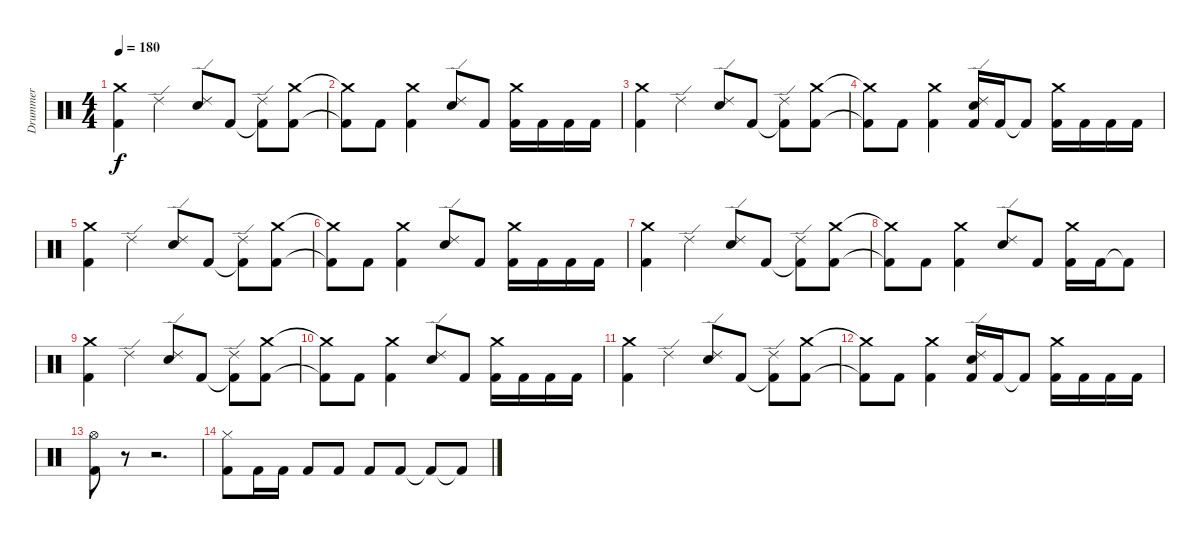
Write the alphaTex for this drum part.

\track ("Drummer" "Drummer") {instrument percussion}
\staff {score}
\articulation defaults
\ts (4 4)
\tempo 180
\clef neutral
\ks c
("Kick (hit) 2" "Crash medium (hit)").4{dy f} "Ride (edge) 2".4 ("Snare (hit) 2" "Ride (edge) 2").8 "Kick (hit) 2".8 ("Kick (hit) 2"{t} "Ride (edge) 2").8 ("Kick (hit) 2" "Crash medium (hit)").8 |
("Kick (hit) 2"{t} "Crash medium (hit)"{t}).8 "Kick (hit) 2".8 ("Kick (hit) 2" "Crash medium (hit)").4 ("Snare (hit) 2" "Ride (edge) 2").8 "Kick (hit) 2".8 ("Kick (hit) 2" "Crash medium (hit)").16 "Kick (hit) 2".16 "Kick (hit) 2".16 "Kick (hit) 2".16 |
("Kick (hit) 2" "Crash medium (hit)").4 "Ride (edge) 2".4 ("Snare (hit) 2" "Ride (edge) 2").8 "Kick (hit) 2".8 ("Kick (hit) 2"{t} "Ride (edge) 2").8 ("Kick (hit) 2" "Crash medium (hit)").8 |
("Kick (hit) 2"{t} "Crash medium (hit)"{t}).8 "Kick (hit) 2".8 ("Kick (hit) 2" "Crash medium (hit)").4 ("Kick (hit) 2" "Snare (hit) 2" "Ride (edge) 2").16 "Kick (hit) 2".16 "Kick (hit) 2"{t}.8 ("Kick (hit) 2" "Crash medium (hit)").16 "Kick (hit) 2".16 "Kick (hit) 2".16 "Kick (hit) 2".16 |
("Kick (hit) 2" "Crash medium (hit)").4 "Ride (edge) 2".4 ("Snare (hit) 2" "Ride (edge) 2").8 "Kick (hit) 2".8 ("Kick (hit) 2"{t} "Ride (edge) 2").8 ("Kick (hit) 2" "Crash medium (hit)").8 |
("Kick (hit) 2"{t} "Crash medium (hit)"{t}).8 "Kick (hit) 2".8 ("Kick (hit) 2" "Crash medium (hit)").4 ("Snare (hit) 2" "Ride (edge) 2").8 "Kick (hit) 2".8 ("Kick (hit) 2" "Crash medium (hit)").16 "Kick (hit) 2".16 "Kick (hit) 2".16 "Kick (hit) 2".16 |
("Kick (hit) 2" "Crash medium (hit)").4 "Ride (edge) 2".4 ("Snare (hit) 2" "Ride (edge) 2").8 "Kick (hit) 2".8 ("Kick (hit) 2"{t} "Ride (edge) 2").8 ("Kick (hit) 2" "Crash medium (hit)").8 |
("Kick (hit) 2"{t} "Crash medium (hit)"{t}).8 "Kick (hit) 2".8 ("Kick (hit) 2" "Crash medium (hit)").4 ("Snare (hit) 2" "Ride (edge) 2").8 "Kick (hit) 2".8 ("Kick (hit) 2" "Crash medium (hit)").16 "Kick (hit) 2".16 "Kick (hit) 2"{t}.8 |
("Kick (hit) 2" "Crash medium (hit)").4 "Ride (edge) 2".4 ("Snare (hit) 2" "Ride (edge) 2").8 "Kick (hit) 2".8 ("Kick (hit) 2"{t} "Ride (edge) 2").8 ("Kick (hit) 2" "Crash medium (hit)").8 |
("Kick (hit) 2"{t} "Crash medium (hit)"{t}).8 "Kick (hit) 2".8 ("Kick (hit) 2" "Crash medium (hit)").4 ("Snare (hit) 2" "Ride (edge) 2").8 "Kick (hit) 2".8 ("Kick (hit) 2" "Crash medium (hit)").16 "Kick (hit) 2".16 "Kick (hit) 2".16 "Kick (hit) 2".16 |
("Kick (hit) 2" "Crash medium (hit)").4 "Ride (edge) 2".4 ("Snare (hit) 2" "Ride (edge) 2").8 "Kick (hit) 2".8 ("Kick (hit) 2"{t} "Ride (edge) 2").8 ("Kick (hit) 2" "Crash medium (hit)").8 |
("Kick (hit) 2"{t} "Crash medium (hit)"{t}).8 "Kick (hit) 2".8 ("Kick (hit) 2" "Crash medium (hit)").4 ("Kick (hit) 2" "Snare (hit) 2" "Ride (edge) 2").16 "Kick (hit) 2".16 "Kick (hit) 2"{t}.8 ("Kick (hit) 2" "Crash medium (hit)").16 "Kick (hit) 2".16 "Kick (hit) 2".16 "Kick (hit) 2".16 |
("Kick (hit) 2" "Hi-Hat (open)").8 r.8 r.2{d} |
("Kick (hit) 2" "Hi-Hat (closed)").8 "Kick (hit) 2".16 "Kick (hit) 2".16 "Kick (hit) 2".8 "Kick (hit) 2".8 "Kick (hit) 2".8 "Kick (hit) 2".8 "Kick (hit) 2"{t}.8 "Kick (hit) 2"{t}.8
